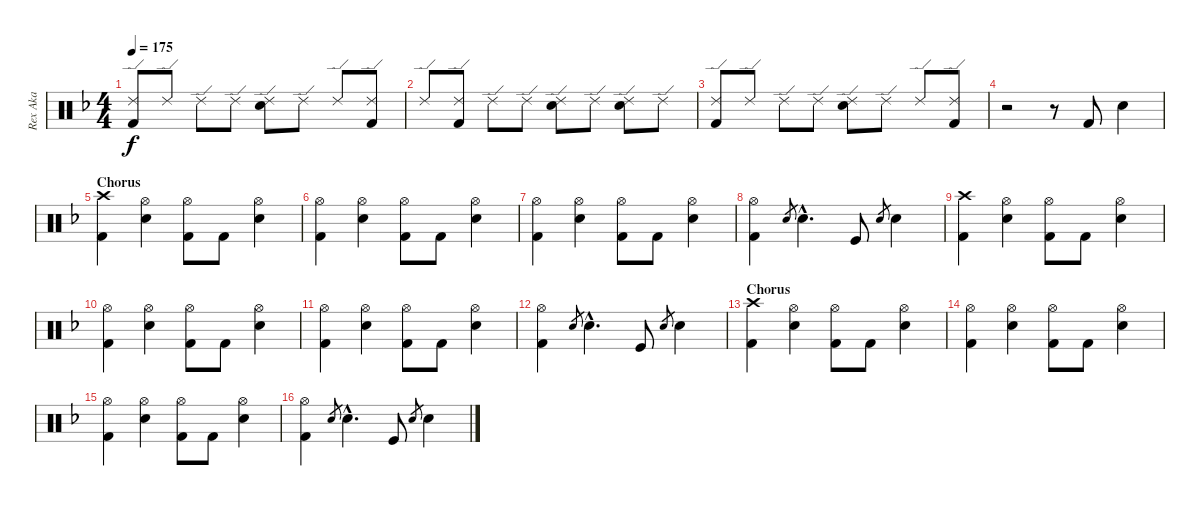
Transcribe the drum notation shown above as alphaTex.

\track ("Rex Aka" "Rex Aka") {instrument percussion}
\staff {score}
\articulation defaults
\ts (4 4)
\tempo 175
\clef neutral
\ks f
("Ride (edge) 2" "Kick (hit) 2").8{dy f} "Ride (edge) 2".8 "Ride (edge) 2".8 "Ride (edge) 2".8 ("Ride (edge) 2" "Electric Snare (hit)").8 "Ride (edge) 2".8 "Ride (edge) 2".8 ("Ride (edge) 2" "Kick (hit) 2").8 |
"Ride (edge) 2".8 ("Ride (edge) 2" "Kick (hit) 2").8 "Ride (edge) 2".8 "Ride (edge) 2".8 ("Ride (edge) 2" "Electric Snare (hit)").8 "Ride (edge) 2".8 ("Ride (edge) 2" "Electric Snare (hit)").8 "Ride (edge) 2".8 |
("Ride (edge) 2" "Kick (hit) 2").8 "Ride (edge) 2".8 "Ride (edge) 2".8 "Ride (edge) 2".8 ("Ride (edge) 2" "Electric Snare (hit)").8 "Ride (edge) 2".8 "Ride (edge) 2".8 ("Ride (edge) 2" "Kick (hit) 2").8 |
r.2 r.8 "Kick (hit) 2".8 "Electric Snare (hit)".4 |
\section ("" "Chorus")
("Crash high (hit)" "Kick (hit) 2").4 ("Hi-Hat (open)" "Electric Snare (hit)").4 ("Hi-Hat (open)" "Kick (hit) 2").8 "Kick (hit) 2".8 ("Hi-Hat (open)" "Electric Snare (hit)").4 |
("Hi-Hat (open)" "Kick (hit) 2").4 ("Hi-Hat (open)" "Electric Snare (hit)").4 ("Hi-Hat (open)" "Kick (hit) 2").8 "Kick (hit) 2".8 ("Hi-Hat (open)" "Electric Snare (hit)").4 |
("Hi-Hat (open)" "Kick (hit) 2").4 ("Hi-Hat (open)" "Electric Snare (hit)").4 ("Hi-Hat (open)" "Kick (hit) 2").8 "Kick (hit) 2".8 ("Hi-Hat (open)" "Electric Snare (hit)").4 |
("Hi-Hat (open)" "Kick (hit) 2").4 "Electric Snare (hit)".8{gr} "Electric Snare (hit)"{hac}.4{d} "Kick (hit)".8 "Electric Snare (hit)".8{gr} "Electric Snare (hit)".4 |
("Crash high (hit)" "Kick (hit) 2").4 ("Hi-Hat (open)" "Electric Snare (hit)").4 ("Hi-Hat (open)" "Kick (hit) 2").8 "Kick (hit) 2".8 ("Hi-Hat (open)" "Electric Snare (hit)").4 |
("Hi-Hat (open)" "Kick (hit) 2").4 ("Hi-Hat (open)" "Electric Snare (hit)").4 ("Hi-Hat (open)" "Kick (hit) 2").8 "Kick (hit) 2".8 ("Hi-Hat (open)" "Electric Snare (hit)").4 |
("Hi-Hat (open)" "Kick (hit) 2").4 ("Hi-Hat (open)" "Electric Snare (hit)").4 ("Hi-Hat (open)" "Kick (hit) 2").8 "Kick (hit) 2".8 ("Hi-Hat (open)" "Electric Snare (hit)").4 |
("Hi-Hat (open)" "Kick (hit) 2").4 "Electric Snare (hit)".8{gr} "Electric Snare (hit)"{hac}.4{d} "Kick (hit)".8 "Electric Snare (hit)".8{gr} "Electric Snare (hit)".4 |
\section ("" "Chorus")
("Crash high (hit)" "Kick (hit) 2").4 ("Hi-Hat (open)" "Electric Snare (hit)").4 ("Hi-Hat (open)" "Kick (hit) 2").8 "Kick (hit) 2".8 ("Hi-Hat (open)" "Electric Snare (hit)").4 |
("Hi-Hat (open)" "Kick (hit) 2").4 ("Hi-Hat (open)" "Electric Snare (hit)").4 ("Hi-Hat (open)" "Kick (hit) 2").8 "Kick (hit) 2".8 ("Hi-Hat (open)" "Electric Snare (hit)").4 |
("Hi-Hat (open)" "Kick (hit) 2").4 ("Hi-Hat (open)" "Electric Snare (hit)").4 ("Hi-Hat (open)" "Kick (hit) 2").8 "Kick (hit) 2".8 ("Hi-Hat (open)" "Electric Snare (hit)").4 |
("Hi-Hat (open)" "Kick (hit) 2").4 "Electric Snare (hit)".8{gr} "Electric Snare (hit)"{hac}.4{d} "Kick (hit)".8 "Electric Snare (hit)".8{gr} "Electric Snare (hit)".4
